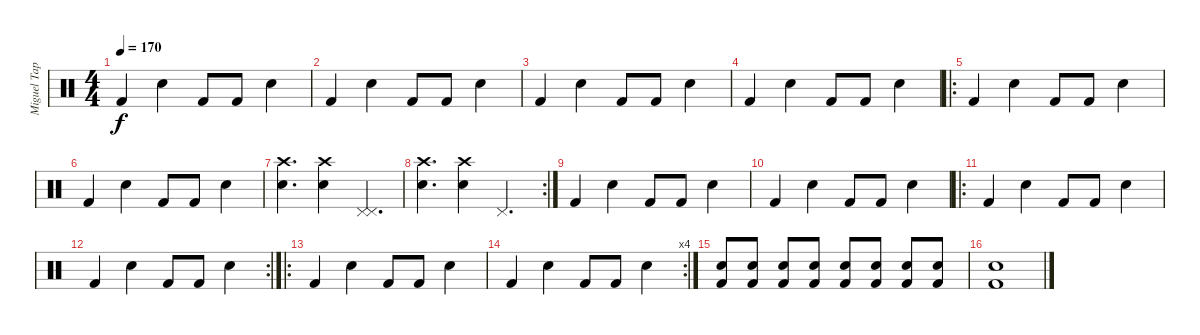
\track ("Miguel Tapia" "Miguel Tap") {instrument percussion}
\staff {score}
\articulation defaults
\ts (4 4)
\tempo 170
\clef neutral
\ks c "Kick (hit) 2".4{dy f} "Snare (hit) 2".4 "Kick (hit) 2".8 "Kick (hit) 2".8 "Snare (hit) 2".4
|
"Kick (hit) 2".4 "Snare (hit) 2".4 "Kick (hit) 2".8 "Kick (hit) 2".8 "Snare (hit) 2".4 |
"Kick (hit) 2".4 "Snare (hit) 2".4 "Kick (hit) 2".8 "Kick (hit) 2".8 "Snare (hit) 2".4 |
"Kick (hit) 2".4 "Snare (hit) 2".4 "Kick (hit) 2".8 "Kick (hit) 2".8 "Snare (hit) 2".4 |
\ro "Kick (hit) 2".4 "Snare (hit) 2".4 "Kick (hit) 2".8 "Kick (hit) 2".8 "Snare (hit) 2".4
|
"Kick (hit) 2".4 "Snare (hit) 2".4 "Kick (hit) 2".8 "Kick (hit) 2".8 "Snare (hit) 2".4 |
("Snare (hit) 2" "Crash high (hit)").4{d} ("Snare (hit) 2" "Crash high (hit)").4 ("Pedal Hi-Hat (hit)" "Pedal Hi-Hat (hit)").4{d} |
\rc 2
("Snare (hit) 2" "Crash high (hit)").4{d} ("Snare (hit) 2" "Crash high (hit)").4 "Pedal Hi-Hat (hit)".4{d} |
"Kick (hit) 2".4 "Snare (hit) 2".4 "Kick (hit) 2".8 "Kick (hit) 2".8 "Snare (hit) 2".4 |
"Kick (hit) 2".4 "Snare (hit) 2".4 "Kick (hit) 2".8 "Kick (hit) 2".8 "Snare (hit) 2".4 |
\ro "Kick (hit) 2".4 "Snare (hit) 2".4 "Kick (hit) 2".8 "Kick (hit) 2".8 "Snare (hit) 2".4
|
\rc 2 "Kick (hit) 2".4 "Snare (hit) 2".4 "Kick (hit) 2".8 "Kick (hit) 2".8 "Snare (hit) 2".4
|
\ro "Kick (hit) 2".4 "Snare (hit) 2".4 "Kick (hit) 2".8 "Kick (hit) 2".8 "Snare (hit) 2".4
|
\rc 4 "Kick (hit) 2".4 "Snare (hit) 2".4 "Kick (hit) 2".8 "Kick (hit) 2".8 "Snare (hit) 2".4
|
("Kick (hit) 2" "Snare (hit) 2").8 ("Snare (hit) 2" "Kick (hit) 2").8 ("Kick (hit) 2" "Snare (hit) 2").8 ("Kick (hit) 2" "Snare (hit) 2").8 ("Snare (hit) 2" "Kick (hit) 2").8 ("Snare (hit) 2" "Kick (hit) 2").8 ("Snare (hit) 2" "Kick (hit) 2").8 ("Kick (hit) 2" "Snare (hit) 2").8 |
("Kick (hit) 2" "Snare (hit) 2").1
